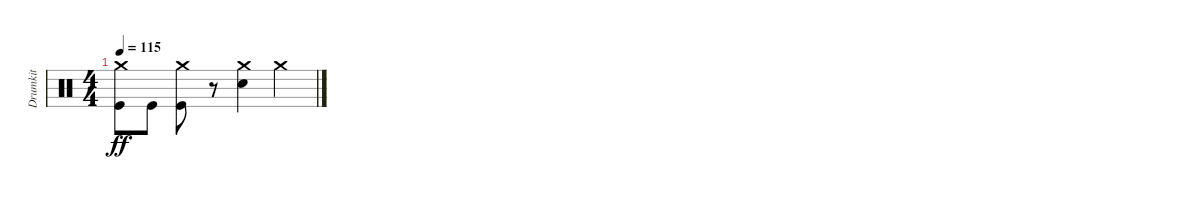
\track ("Drumkit" "Drumkit") {instrument percussion}
\staff {score}
\articulation defaults
\ts (4 4)
\tempo 115
\clef neutral
\ks c
("Kick (hit)" "Crash medium (hit)").8{dy ff} "Kick (hit)".8 ("Kick (hit)" "Crash medium (hit)").8 r.8 ("Snare (hit) 2" "Crash medium (hit)").4 "Crash medium (hit)".4
